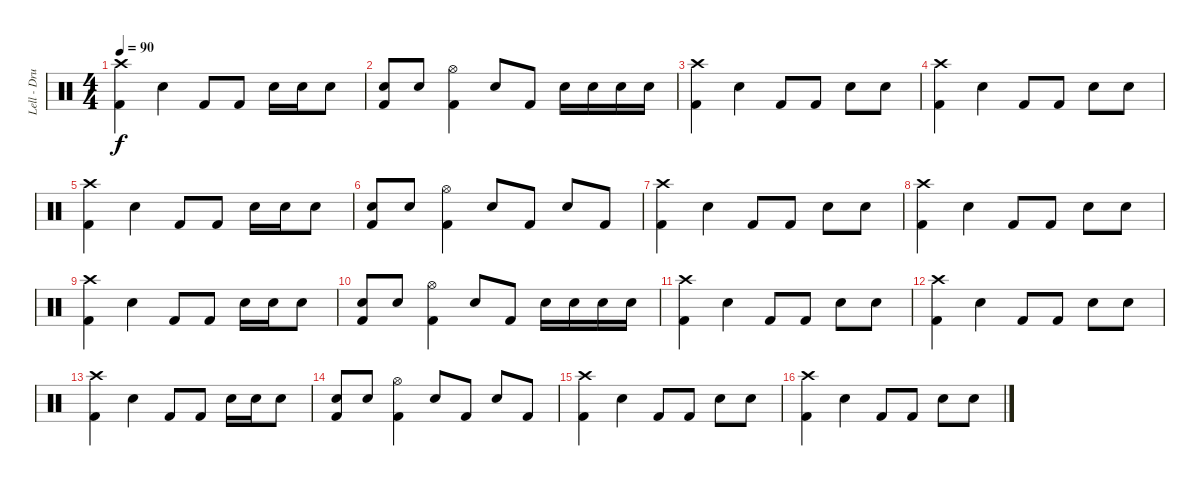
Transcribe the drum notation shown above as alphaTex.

\track ("Lell - Drums" "Lell - Dru") {instrument percussion}
\staff {score}
\articulation defaults
\ts (4 4)
\tempo 90
\clef neutral
\ks c
("Crash high (hit)" "Kick (hit) 2").4{dy f} "Snare (hit) 2".4 "Kick (hit) 2".8 "Kick (hit) 2".8 "Snare (hit) 2".16 "Snare (hit) 2".16 "Snare (hit) 2".8 |
("Snare (hit) 2" "Kick (hit) 2").8 "Snare (hit) 2".8 ("Hi-Hat (open)" "Kick (hit) 2").4 "Snare (hit) 2".8 "Kick (hit) 2".8 "Snare (hit) 2".16 "Snare (hit) 2".16 "Snare (hit) 2".16 "Snare (hit) 2".16 |
("Crash high (hit)" "Kick (hit) 2").4 "Snare (hit) 2".4 "Kick (hit) 2".8 "Kick (hit) 2".8 "Snare (hit) 2".8 "Snare (hit) 2".8 |
("Crash high (hit)" "Kick (hit) 2").4 "Snare (hit) 2".4 "Kick (hit) 2".8 "Kick (hit) 2".8 "Snare (hit) 2".8 "Snare (hit) 2".8 |
("Crash high (hit)" "Kick (hit) 2").4 "Snare (hit) 2".4 "Kick (hit) 2".8 "Kick (hit) 2".8 "Snare (hit) 2".16 "Snare (hit) 2".16 "Snare (hit) 2".8 |
("Snare (hit) 2" "Kick (hit) 2").8 "Snare (hit) 2".8 ("Hi-Hat (open)" "Kick (hit) 2").4 "Snare (hit) 2".8 "Kick (hit) 2".8 "Snare (hit) 2".8 "Kick (hit) 2".8 |
("Crash high (hit)" "Kick (hit) 2").4 "Snare (hit) 2".4 "Kick (hit) 2".8 "Kick (hit) 2".8 "Snare (hit) 2".8 "Snare (hit) 2".8 |
("Crash high (hit)" "Kick (hit) 2").4 "Snare (hit) 2".4 "Kick (hit) 2".8 "Kick (hit) 2".8 "Snare (hit) 2".8 "Snare (hit) 2".8 |
("Crash high (hit)" "Kick (hit) 2").4 "Snare (hit) 2".4 "Kick (hit) 2".8 "Kick (hit) 2".8 "Snare (hit) 2".16 "Snare (hit) 2".16 "Snare (hit) 2".8 |
("Snare (hit) 2" "Kick (hit) 2").8 "Snare (hit) 2".8 ("Hi-Hat (open)" "Kick (hit) 2").4 "Snare (hit) 2".8 "Kick (hit) 2".8 "Snare (hit) 2".16 "Snare (hit) 2".16 "Snare (hit) 2".16 "Snare (hit) 2".16 |
("Crash high (hit)" "Kick (hit) 2").4 "Snare (hit) 2".4 "Kick (hit) 2".8 "Kick (hit) 2".8 "Snare (hit) 2".8 "Snare (hit) 2".8 |
("Crash high (hit)" "Kick (hit) 2").4 "Snare (hit) 2".4 "Kick (hit) 2".8 "Kick (hit) 2".8 "Snare (hit) 2".8 "Snare (hit) 2".8 |
("Crash high (hit)" "Kick (hit) 2").4 "Snare (hit) 2".4 "Kick (hit) 2".8 "Kick (hit) 2".8 "Snare (hit) 2".16 "Snare (hit) 2".16 "Snare (hit) 2".8 |
("Snare (hit) 2" "Kick (hit) 2").8 "Snare (hit) 2".8 ("Hi-Hat (open)" "Kick (hit) 2").4 "Snare (hit) 2".8 "Kick (hit) 2".8 "Snare (hit) 2".8 "Kick (hit) 2".8 |
("Crash high (hit)" "Kick (hit) 2").4 "Snare (hit) 2".4 "Kick (hit) 2".8 "Kick (hit) 2".8 "Snare (hit) 2".8 "Snare (hit) 2".8 |
("Crash high (hit)" "Kick (hit) 2").4 "Snare (hit) 2".4 "Kick (hit) 2".8 "Kick (hit) 2".8 "Snare (hit) 2".8 "Snare (hit) 2".8
